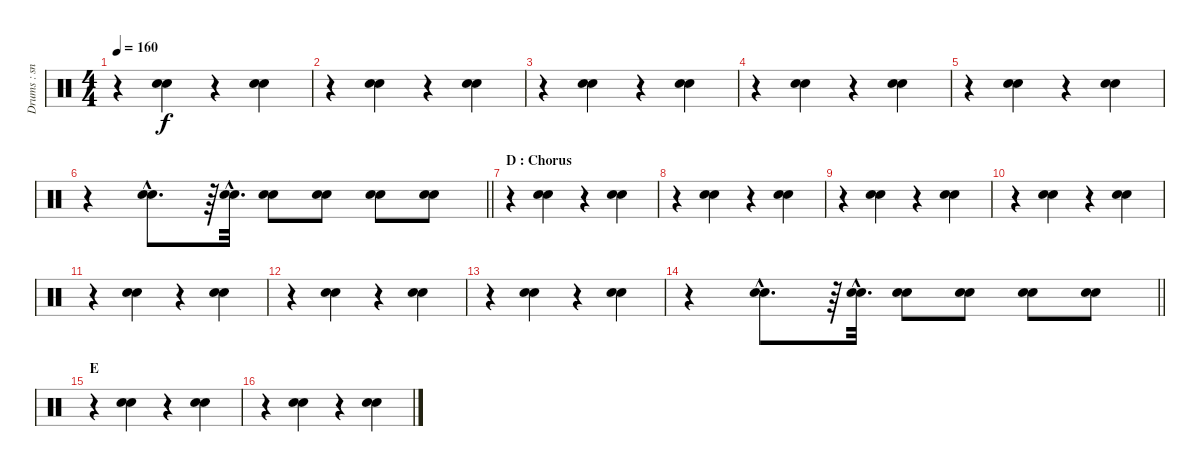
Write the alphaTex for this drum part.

\track ("Drums : snare" "Drums : sn") {instrument percussion}
\staff {score}
\articulation defaults
\ts (4 4)
\tempo 160
\clef neutral
\ks c
r.4{dy f} ("Snare (hit) 2" "Electric Snare (hit)").4 r.4 ("Snare (hit) 2" "Electric Snare (hit)").4 |
r.4 ("Snare (hit) 2" "Electric Snare (hit)").4 r.4 ("Snare (hit) 2" "Electric Snare (hit)").4 |
r.4 ("Snare (hit) 2" "Electric Snare (hit)").4 r.4 ("Snare (hit) 2" "Electric Snare (hit)").4 |
r.4 ("Snare (hit) 2" "Electric Snare (hit)").4 r.4 ("Snare (hit) 2" "Electric Snare (hit)").4 |
r.4 ("Snare (hit) 2" "Electric Snare (hit)").4 r.4 ("Snare (hit) 2" "Electric Snare (hit)").4 |
\barLineRight lightlight
r.4 ("Snare (hit) 2"{hac} "Electric Snare (hit)"{hac}).8{d} r.64 ("Snare (hit) 2"{hac} "Electric Snare (hit)"{hac}).32{d} ("Snare (hit) 2" "Electric Snare (hit)").8 ("Snare (hit) 2" "Electric Snare (hit)").8 ("Snare (hit) 2" "Electric Snare (hit)").8 ("Snare (hit) 2" "Electric Snare (hit)").8 |
\section ("" "D : Chorus")
r.4 ("Snare (hit) 2" "Electric Snare (hit)").4 r.4 ("Snare (hit) 2" "Electric Snare (hit)").4 |
r.4 ("Snare (hit) 2" "Electric Snare (hit)").4 r.4 ("Snare (hit) 2" "Electric Snare (hit)").4 |
r.4 ("Snare (hit) 2" "Electric Snare (hit)").4 r.4 ("Snare (hit) 2" "Electric Snare (hit)").4 |
r.4 ("Snare (hit) 2" "Electric Snare (hit)").4 r.4 ("Snare (hit) 2" "Electric Snare (hit)").4 |
r.4 ("Snare (hit) 2" "Electric Snare (hit)").4 r.4 ("Snare (hit) 2" "Electric Snare (hit)").4 |
r.4 ("Snare (hit) 2" "Electric Snare (hit)").4 r.4 ("Snare (hit) 2" "Electric Snare (hit)").4 |
r.4 ("Snare (hit) 2" "Electric Snare (hit)").4 r.4 ("Snare (hit) 2" "Electric Snare (hit)").4 |
\barLineRight lightlight
r.4 ("Snare (hit) 2"{hac} "Electric Snare (hit)"{hac}).8{d} r.64 ("Snare (hit) 2"{hac} "Electric Snare (hit)"{hac}).32{d} ("Snare (hit) 2" "Electric Snare (hit)").8 ("Snare (hit) 2" "Electric Snare (hit)").8 ("Snare (hit) 2" "Electric Snare (hit)").8 ("Snare (hit) 2" "Electric Snare (hit)").8 |
\section ("" "E")
r.4 ("Snare (hit) 2" "Electric Snare (hit)").4 r.4 ("Snare (hit) 2" "Electric Snare (hit)").4 |
r.4 ("Snare (hit) 2" "Electric Snare (hit)").4 r.4 ("Snare (hit) 2" "Electric Snare (hit)").4
